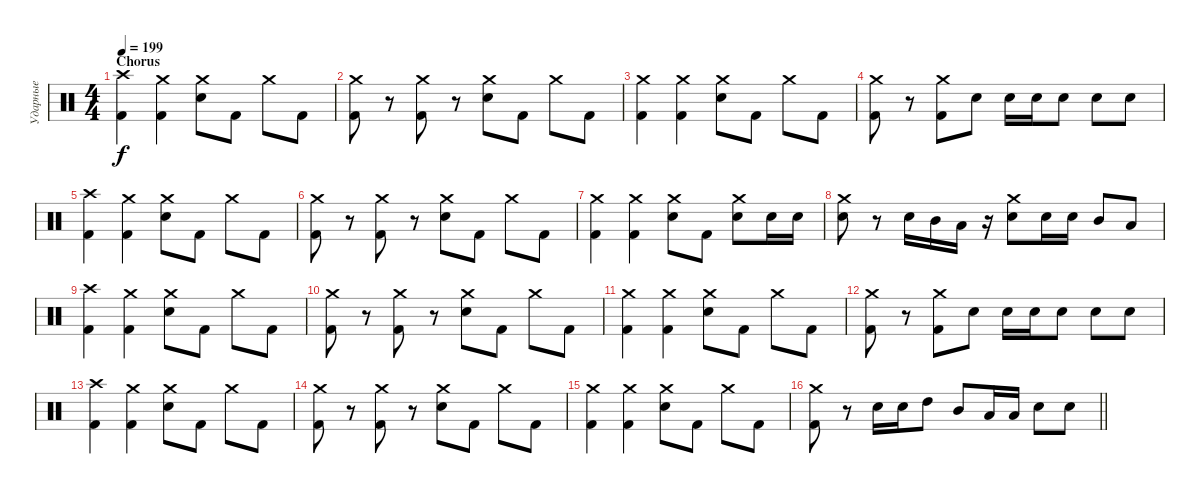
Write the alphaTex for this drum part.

\track ("Ударные" "Ударные") {instrument percussion}
\staff {score}
\articulation defaults
\ts (4 4)
\section ("" "Chorus")
\tempo 199
\clef neutral
\ks c
("Crash high (hit)" "Kick (hit) 2").4{dy f} ("Crash medium (hit)" "Kick (hit) 2").4 ("Crash medium (hit)" "Electric Snare (hit)").8 "Kick (hit) 2".8 "Crash medium (hit)".8 "Kick (hit) 2".8 |
("Crash medium (hit)" "Kick (hit) 2").8 r.8 ("Crash medium (hit)" "Kick (hit) 2").8 r.8 ("Crash medium (hit)" "Electric Snare (hit)").8 "Kick (hit) 2".8 "Crash medium (hit)".8 "Kick (hit) 2".8 |
("Crash medium (hit)" "Kick (hit) 2").4 ("Crash medium (hit)" "Kick (hit) 2").4 ("Crash medium (hit)" "Electric Snare (hit)").8 "Kick (hit) 2".8 "Crash medium (hit)".8 "Kick (hit) 2".8 |
("Crash medium (hit)" "Kick (hit) 2").8 r.8 ("Crash medium (hit)" "Kick (hit) 2").8 "Electric Snare (hit)".8 "Electric Snare (hit)".16 "Electric Snare (hit)".16 "Electric Snare (hit)".8 "Electric Snare (hit)".8 "Electric Snare (hit)".8 |
("Crash high (hit)" "Kick (hit) 2").4 ("Crash medium (hit)" "Kick (hit) 2").4 ("Crash medium (hit)" "Electric Snare (hit)").8 "Kick (hit) 2".8 "Crash medium (hit)".8 "Kick (hit) 2".8 |
("Crash medium (hit)" "Kick (hit) 2").8 r.8 ("Crash medium (hit)" "Kick (hit) 2").8 r.8 ("Crash medium (hit)" "Electric Snare (hit)").8 "Kick (hit) 2".8 "Crash medium (hit)".8 "Kick (hit) 2".8 |
("Crash medium (hit)" "Kick (hit) 2").4 ("Crash medium (hit)" "Kick (hit) 2").4 ("Crash medium (hit)" "Electric Snare (hit)").8 "Kick (hit) 2".8 ("Crash medium (hit)" "Electric Snare (hit)").8 "Electric Snare (hit)".16 "Electric Snare (hit)".16 |
("Crash medium (hit)" "Electric Snare (hit)").8 r.8 "Electric Snare (hit)".16 "Mid Tom (hit)".16 "Low Tom (hit)".16 r.16 ("Crash medium (hit)" "Electric Snare (hit)").8 "Electric Snare (hit)".16 "Electric Snare (hit)".16 "Mid Tom (hit)".8 "Low Tom (hit)".8 |
("Crash high (hit)" "Kick (hit) 2").4 ("Crash medium (hit)" "Kick (hit) 2").4 ("Crash medium (hit)" "Electric Snare (hit)").8 "Kick (hit) 2".8 "Crash medium (hit)".8 "Kick (hit) 2".8 |
("Crash medium (hit)" "Kick (hit) 2").8 r.8 ("Crash medium (hit)" "Kick (hit) 2").8 r.8 ("Crash medium (hit)" "Electric Snare (hit)").8 "Kick (hit) 2".8 "Crash medium (hit)".8 "Kick (hit) 2".8 |
("Crash medium (hit)" "Kick (hit) 2").4 ("Crash medium (hit)" "Kick (hit) 2").4 ("Crash medium (hit)" "Electric Snare (hit)").8 "Kick (hit) 2".8 "Crash medium (hit)".8 "Kick (hit) 2".8 |
("Crash medium (hit)" "Kick (hit) 2").8 r.8 ("Crash medium (hit)" "Kick (hit) 2").8 "Electric Snare (hit)".8 "Electric Snare (hit)".16 "Electric Snare (hit)".16 "Electric Snare (hit)".8 "Electric Snare (hit)".8 "Electric Snare (hit)".8 |
("Crash high (hit)" "Kick (hit) 2").4 ("Crash medium (hit)" "Kick (hit) 2").4 ("Crash medium (hit)" "Electric Snare (hit)").8 "Kick (hit) 2".8 "Crash medium (hit)".8 "Kick (hit) 2".8 |
("Crash medium (hit)" "Kick (hit) 2").8 r.8 ("Crash medium (hit)" "Kick (hit) 2").8 r.8 ("Crash medium (hit)" "Electric Snare (hit)").8 "Kick (hit) 2".8 "Crash medium (hit)".8 "Kick (hit) 2".8 |
("Crash medium (hit)" "Kick (hit) 2").4 ("Crash medium (hit)" "Kick (hit) 2").4 ("Crash medium (hit)" "Electric Snare (hit)").8 "Kick (hit) 2".8 "Crash medium (hit)".8 "Kick (hit) 2".8 |
\barLineRight lightlight
("Crash medium (hit)" "Kick (hit) 2").8 r.8 "Electric Snare (hit)".16 "Electric Snare (hit)".16 "High Tom (hit)".8 "Mid Tom (hit)".8 "Low Tom (hit)".16 "Low Tom (hit)".16 "Electric Snare (hit)".8 "Electric Snare (hit)".8
